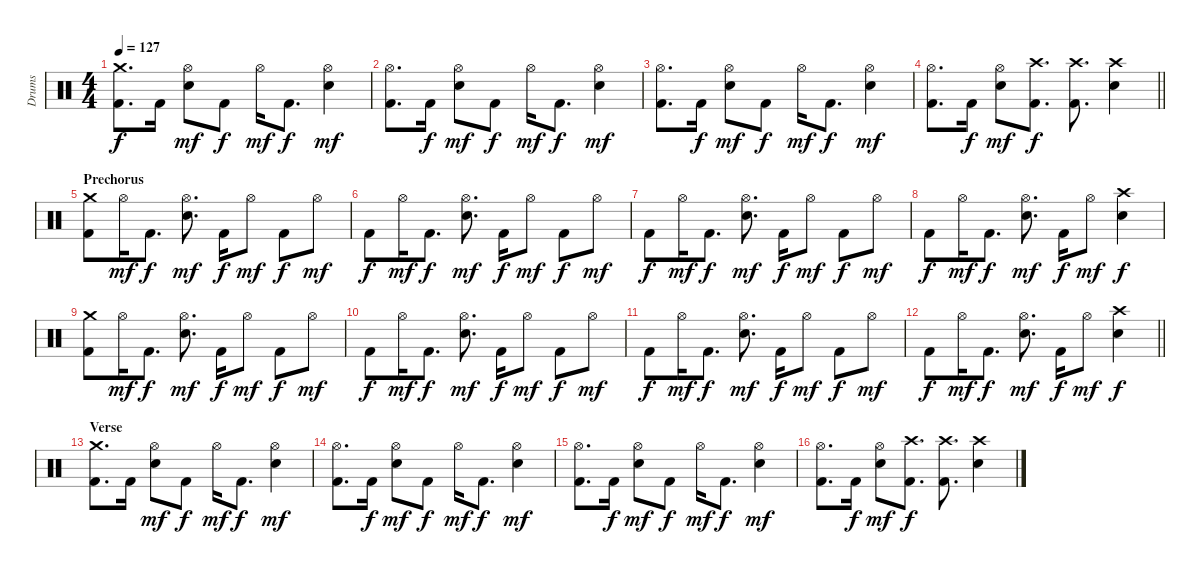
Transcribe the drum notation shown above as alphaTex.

\track ("Drums" "Drums") {instrument percussion}
\staff {score}
\articulation defaults
\ts (4 4)
\tempo 127
\clef neutral
\ks c
("Kick (hit) 2" "Crash medium (hit)").8{d dy f} "Kick (hit) 2".16 ("Hi-Hat (open)" "Electric Snare (hit)").8{dy mf} "Kick (hit) 2".8{dy f} "Hi-Hat (open)".16{dy mf} "Kick (hit) 2".8{d dy f} ("Hi-Hat (open)" "Electric Snare (hit)").4{dy mf} |
("Kick (hit) 2" "Hi-Hat (open)").8{d} "Kick (hit) 2".16{dy f} ("Hi-Hat (open)" "Electric Snare (hit)").8{dy mf} "Kick (hit) 2".8{dy f} "Hi-Hat (open)".16{dy mf} "Kick (hit) 2".8{d dy f} ("Hi-Hat (open)" "Electric Snare (hit)").4{dy mf} |
("Kick (hit) 2" "Hi-Hat (open)").8{d} "Kick (hit) 2".16{dy f} ("Hi-Hat (open)" "Electric Snare (hit)").8{dy mf} "Kick (hit) 2".8{dy f} "Hi-Hat (open)".16{dy mf} "Kick (hit) 2".8{d dy f} ("Hi-Hat (open)" "Electric Snare (hit)").4{dy mf} |
\barLineRight lightlight
("Kick (hit) 2" "Hi-Hat (open)").8{d} "Kick (hit) 2".16{dy f} ("Hi-Hat (open)" "Electric Snare (hit)").8{dy mf} ("Kick (hit) 2" "Crash high (hit)").8{d dy f} ("Kick (hit) 2" "Crash high (hit)").8{d} ("Crash high (hit)" "Electric Snare (hit)").4 |
\section ("" "Prechorus")
("Kick (hit) 2" "Crash medium (hit)").8 "Hi-Hat (open)".16{dy mf} "Kick (hit) 2".8{d dy f} ("Hi-Hat (open)" "Electric Snare (hit)").8{d dy mf} "Kick (hit) 2".16{dy f} "Hi-Hat (open)".8{dy mf} "Kick (hit) 2".8{dy f} "Hi-Hat (open)".8{dy mf} |
"Kick (hit) 2".8{dy f} "Hi-Hat (open)".16{dy mf} "Kick (hit) 2".8{d dy f} ("Hi-Hat (open)" "Electric Snare (hit)").8{d dy mf} "Kick (hit) 2".16{dy f} "Hi-Hat (open)".8{dy mf} "Kick (hit) 2".8{dy f} "Hi-Hat (open)".8{dy mf} |
"Kick (hit) 2".8{dy f} "Hi-Hat (open)".16{dy mf} "Kick (hit) 2".8{d dy f} ("Hi-Hat (open)" "Electric Snare (hit)").8{d dy mf} "Kick (hit) 2".16{dy f} "Hi-Hat (open)".8{dy mf} "Kick (hit) 2".8{dy f} "Hi-Hat (open)".8{dy mf} |
"Kick (hit) 2".8{dy f} "Hi-Hat (open)".16{dy mf} "Kick (hit) 2".8{d dy f} ("Hi-Hat (open)" "Electric Snare (hit)").8{d dy mf} "Kick (hit) 2".16{dy f} "Hi-Hat (open)".8{dy mf} ("Crash high (hit)" "Electric Snare (hit)").4{dy f} |
("Kick (hit) 2" "Crash medium (hit)").8 "Hi-Hat (open)".16{dy mf} "Kick (hit) 2".8{d dy f} ("Hi-Hat (open)" "Electric Snare (hit)").8{d dy mf} "Kick (hit) 2".16{dy f} "Hi-Hat (open)".8{dy mf} "Kick (hit) 2".8{dy f} "Hi-Hat (open)".8{dy mf} |
"Kick (hit) 2".8{dy f} "Hi-Hat (open)".16{dy mf} "Kick (hit) 2".8{d dy f} ("Hi-Hat (open)" "Electric Snare (hit)").8{d dy mf} "Kick (hit) 2".16{dy f} "Hi-Hat (open)".8{dy mf} "Kick (hit) 2".8{dy f} "Hi-Hat (open)".8{dy mf} |
"Kick (hit) 2".8{dy f} "Hi-Hat (open)".16{dy mf} "Kick (hit) 2".8{d dy f} ("Hi-Hat (open)" "Electric Snare (hit)").8{d dy mf} "Kick (hit) 2".16{dy f} "Hi-Hat (open)".8{dy mf} "Kick (hit) 2".8{dy f} "Hi-Hat (open)".8{dy mf} |
\barLineRight lightlight "Kick (hit) 2".8{dy f} "Hi-Hat (open)".16{dy mf} "Kick (hit) 2".8{d dy f}
("Hi-Hat (open)" "Electric Snare (hit)").8{d dy mf} "Kick (hit) 2".16{dy f} "Hi-Hat (open)".8{dy mf} ("Crash high (hit)" "Electric Snare (hit)").4{dy f} |
\section ("" "Verse")
("Kick (hit) 2" "Crash medium (hit)").8{d} "Kick (hit) 2".16 ("Hi-Hat (open)" "Electric Snare (hit)").8{dy mf} "Kick (hit) 2".8{dy f} "Hi-Hat (open)".16{dy mf} "Kick (hit) 2".8{d dy f} ("Hi-Hat (open)" "Electric Snare (hit)").4{dy mf} |
("Kick (hit) 2" "Hi-Hat (open)").8{d} "Kick (hit) 2".16{dy f} ("Hi-Hat (open)" "Electric Snare (hit)").8{dy mf} "Kick (hit) 2".8{dy f} "Hi-Hat (open)".16{dy mf} "Kick (hit) 2".8{d dy f} ("Hi-Hat (open)" "Electric Snare (hit)").4{dy mf} |
("Kick (hit) 2" "Hi-Hat (open)").8{d} "Kick (hit) 2".16{dy f} ("Hi-Hat (open)" "Electric Snare (hit)").8{dy mf} "Kick (hit) 2".8{dy f} "Hi-Hat (open)".16{dy mf} "Kick (hit) 2".8{d dy f} ("Hi-Hat (open)" "Electric Snare (hit)").4{dy mf} |
("Kick (hit) 2" "Hi-Hat (open)").8{d} "Kick (hit) 2".16{dy f} ("Hi-Hat (open)" "Electric Snare (hit)").8{dy mf} ("Kick (hit) 2" "Crash high (hit)").8{d dy f} ("Kick (hit) 2" "Crash high (hit)").8{d} ("Crash high (hit)" "Electric Snare (hit)").4
